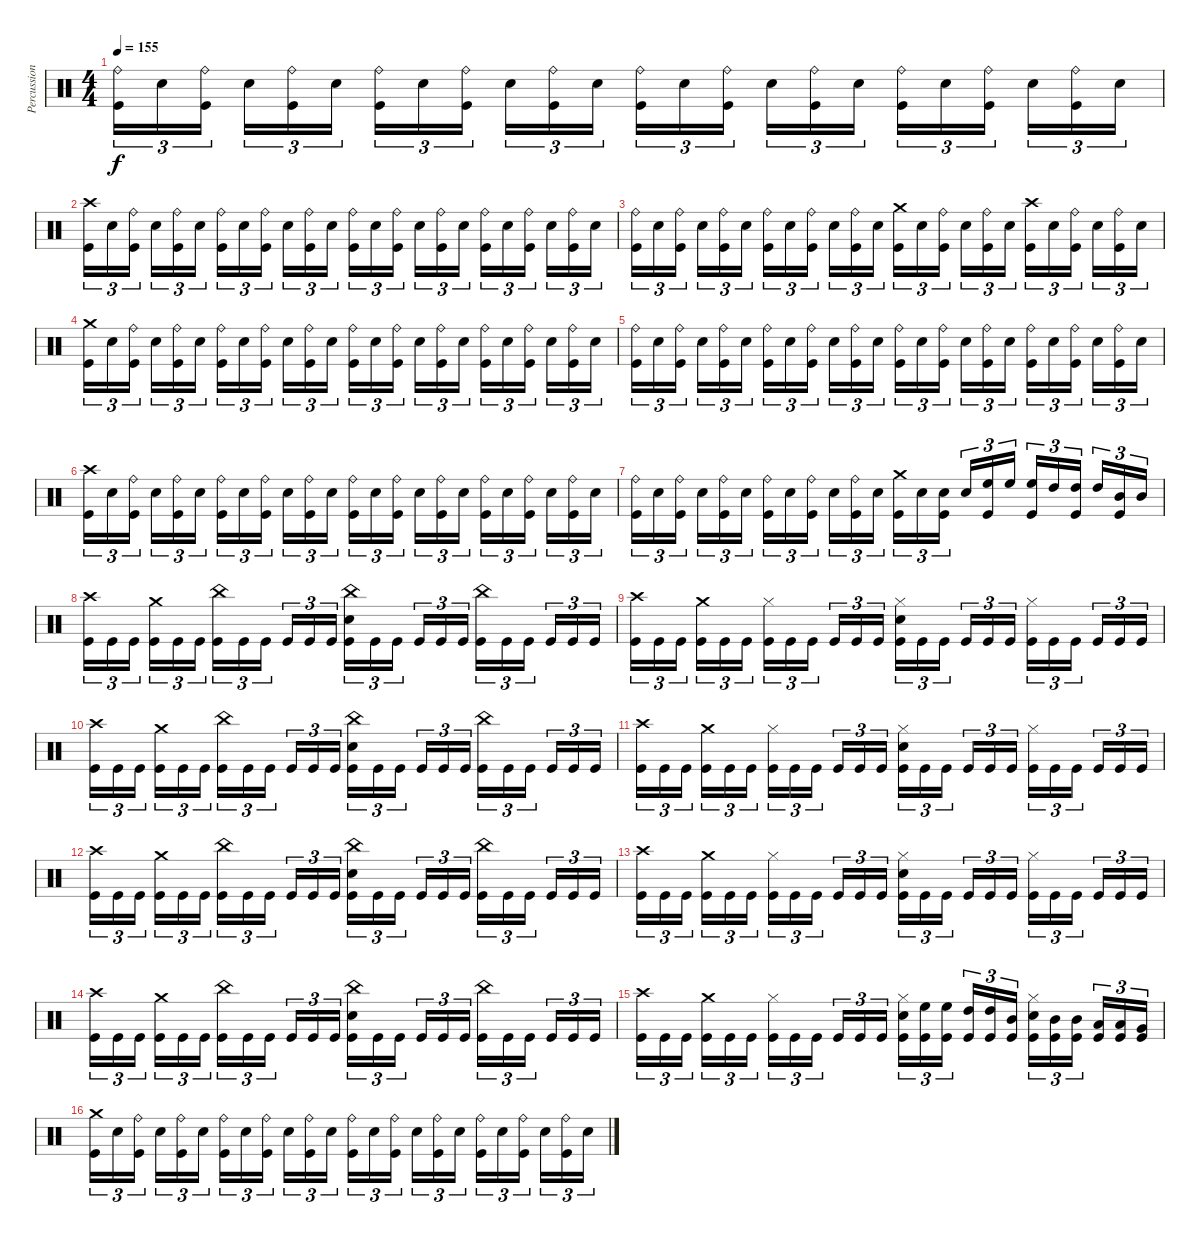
\track ("Percussion" "Percussion") {instrument percussion}
\staff {score}
\articulation defaults
\ts (4 4)
\tempo 155
\clef neutral
\ks c
("Ride (bell)" "Kick (hit)").16{tu (3 2) dy f} "Snare (hit) 2".16{tu (3 2)} ("Ride (bell)" "Kick (hit)").16{tu (3 2) beam splitsecondary} "Snare (hit) 2".16{tu (3 2)} ("Ride (bell)" "Kick (hit)").16{tu (3 2)} "Snare (hit) 2".16{tu (3 2)} ("Ride (bell)" "Kick (hit)").16{tu (3 2)} "Snare (hit) 2".16{tu (3 2)} ("Ride (bell)" "Kick (hit)").16{tu (3 2) beam splitsecondary} "Snare (hit) 2".16{tu (3 2)} ("Ride (bell)" "Kick (hit)").16{tu (3 2)} "Snare (hit) 2".16{tu (3 2)} ("Ride (bell)" "Kick (hit)").16{tu (3 2)} "Snare (hit) 2".16{tu (3 2)} ("Ride (bell)" "Kick (hit)").16{tu (3 2) beam splitsecondary} "Snare (hit) 2".16{tu (3 2)} ("Ride (bell)" "Kick (hit)").16{tu (3 2)} "Snare (hit) 2".16{tu (3 2)} ("Ride (bell)" "Kick (hit)").16{tu (3 2)} "Snare (hit) 2".16{tu (3 2)} ("Ride (bell)" "Kick (hit)").16{tu (3 2) beam splitsecondary} "Snare (hit) 2".16{tu (3 2)} ("Ride (bell)" "Kick (hit)").16{tu (3 2)} "Snare (hit) 2".16{tu (3 2)} |
("Crash high (hit)" "Kick (hit)").16{tu (3 2)} "Snare (hit) 2".16{tu (3 2)} ("Ride (bell)" "Kick (hit)").16{tu (3 2) beam splitsecondary} "Snare (hit) 2".16{tu (3 2)} ("Ride (bell)" "Kick (hit)").16{tu (3 2)} "Snare (hit) 2".16{tu (3 2)} ("Ride (bell)" "Kick (hit)").16{tu (3 2)} "Snare (hit) 2".16{tu (3 2)} ("Ride (bell)" "Kick (hit)").16{tu (3 2) beam splitsecondary} "Snare (hit) 2".16{tu (3 2)} ("Ride (bell)" "Kick (hit)").16{tu (3 2)} "Snare (hit) 2".16{tu (3 2)} ("Ride (bell)" "Kick (hit)").16{tu (3 2)} "Snare (hit) 2".16{tu (3 2)} ("Ride (bell)" "Kick (hit)").16{tu (3 2) beam splitsecondary} "Snare (hit) 2".16{tu (3 2)} ("Ride (bell)" "Kick (hit)").16{tu (3 2)} "Snare (hit) 2".16{tu (3 2)} ("Ride (bell)" "Kick (hit)").16{tu (3 2)} "Snare (hit) 2".16{tu (3 2)} ("Ride (bell)" "Kick (hit)").16{tu (3 2) beam splitsecondary} "Snare (hit) 2".16{tu (3 2)} ("Ride (bell)" "Kick (hit)").16{tu (3 2)} "Snare (hit) 2".16{tu (3 2)} |
("Ride (bell)" "Kick (hit)").16{tu (3 2)} "Snare (hit) 2".16{tu (3 2)} ("Ride (bell)" "Kick (hit)").16{tu (3 2) beam splitsecondary} "Snare (hit) 2".16{tu (3 2)} ("Ride (bell)" "Kick (hit)").16{tu (3 2)} "Snare (hit) 2".16{tu (3 2)} ("Ride (bell)" "Kick (hit)").16{tu (3 2)} "Snare (hit) 2".16{tu (3 2)} ("Ride (bell)" "Kick (hit)").16{tu (3 2) beam splitsecondary} "Snare (hit) 2".16{tu (3 2)} ("Ride (bell)" "Kick (hit)").16{tu (3 2)} "Snare (hit) 2".16{tu (3 2)} ("Crash medium (hit)" "Kick (hit)").16{tu (3 2)} "Snare (hit) 2".16{tu (3 2)} ("Ride (bell)" "Kick (hit)").16{tu (3 2) beam splitsecondary} "Snare (hit) 2".16{tu (3 2)} ("Ride (bell)" "Kick (hit)").16{tu (3 2)} "Snare (hit) 2".16{tu (3 2)} ("Crash high (hit)" "Kick (hit)").16{tu (3 2)} "Snare (hit) 2".16{tu (3 2)} ("Ride (bell)" "Kick (hit)").16{tu (3 2) beam splitsecondary} "Snare (hit) 2".16{tu (3 2)} ("Ride (bell)" "Kick (hit)").16{tu (3 2)} "Snare (hit) 2".16{tu (3 2)} |
("Crash medium (hit)" "Kick (hit)").16{tu (3 2)} "Snare (hit) 2".16{tu (3 2)} ("Ride (bell)" "Kick (hit)").16{tu (3 2) beam splitsecondary} "Snare (hit) 2".16{tu (3 2)} ("Ride (bell)" "Kick (hit)").16{tu (3 2)} "Snare (hit) 2".16{tu (3 2)} ("Ride (bell)" "Kick (hit)").16{tu (3 2)} "Snare (hit) 2".16{tu (3 2)} ("Ride (bell)" "Kick (hit)").16{tu (3 2) beam splitsecondary} "Snare (hit) 2".16{tu (3 2)} ("Ride (bell)" "Kick (hit)").16{tu (3 2)} "Snare (hit) 2".16{tu (3 2)} ("Ride (bell)" "Kick (hit)").16{tu (3 2)} "Snare (hit) 2".16{tu (3 2)} ("Ride (bell)" "Kick (hit)").16{tu (3 2) beam splitsecondary} "Snare (hit) 2".16{tu (3 2)} ("Ride (bell)" "Kick (hit)").16{tu (3 2)} "Snare (hit) 2".16{tu (3 2)} ("Ride (bell)" "Kick (hit)").16{tu (3 2)} "Snare (hit) 2".16{tu (3 2)} ("Ride (bell)" "Kick (hit)").16{tu (3 2) beam splitsecondary} "Snare (hit) 2".16{tu (3 2)} ("Ride (bell)" "Kick (hit)").16{tu (3 2)} "Snare (hit) 2".16{tu (3 2)} |
("Ride (bell)" "Kick (hit)").16{tu (3 2)} "Snare (hit) 2".16{tu (3 2)} ("Ride (bell)" "Kick (hit)").16{tu (3 2) beam splitsecondary} "Snare (hit) 2".16{tu (3 2)} ("Ride (bell)" "Kick (hit)").16{tu (3 2)} "Snare (hit) 2".16{tu (3 2)} ("Ride (bell)" "Kick (hit)").16{tu (3 2)} "Snare (hit) 2".16{tu (3 2)} ("Ride (bell)" "Kick (hit)").16{tu (3 2) beam splitsecondary} "Snare (hit) 2".16{tu (3 2)} ("Ride (bell)" "Kick (hit)").16{tu (3 2)} "Snare (hit) 2".16{tu (3 2)} ("Ride (bell)" "Kick (hit)").16{tu (3 2)} "Snare (hit) 2".16{tu (3 2)} ("Ride (bell)" "Kick (hit)").16{tu (3 2) beam splitsecondary} "Snare (hit) 2".16{tu (3 2)} ("Ride (bell)" "Kick (hit)").16{tu (3 2)} "Snare (hit) 2".16{tu (3 2)} ("Ride (bell)" "Kick (hit)").16{tu (3 2)} "Snare (hit) 2".16{tu (3 2)} ("Ride (bell)" "Kick (hit)").16{tu (3 2) beam splitsecondary} "Snare (hit) 2".16{tu (3 2)} ("Ride (bell)" "Kick (hit)").16{tu (3 2)} "Snare (hit) 2".16{tu (3 2)} |
("Crash high (hit)" "Kick (hit)").16{tu (3 2)} "Snare (hit) 2".16{tu (3 2)} ("Ride (bell)" "Kick (hit)").16{tu (3 2) beam splitsecondary} "Snare (hit) 2".16{tu (3 2)} ("Ride (bell)" "Kick (hit)").16{tu (3 2)} "Snare (hit) 2".16{tu (3 2)} ("Ride (bell)" "Kick (hit)").16{tu (3 2)} "Snare (hit) 2".16{tu (3 2)} ("Ride (bell)" "Kick (hit)").16{tu (3 2) beam splitsecondary} "Snare (hit) 2".16{tu (3 2)} ("Ride (bell)" "Kick (hit)").16{tu (3 2)} "Snare (hit) 2".16{tu (3 2)} ("Ride (bell)" "Kick (hit)").16{tu (3 2)} "Snare (hit) 2".16{tu (3 2)} ("Ride (bell)" "Kick (hit)").16{tu (3 2) beam splitsecondary} "Snare (hit) 2".16{tu (3 2)} ("Ride (bell)" "Kick (hit)").16{tu (3 2)} "Snare (hit) 2".16{tu (3 2)} ("Ride (bell)" "Kick (hit)").16{tu (3 2)} "Snare (hit) 2".16{tu (3 2)} ("Ride (bell)" "Kick (hit)").16{tu (3 2) beam splitsecondary} "Snare (hit) 2".16{tu (3 2)} ("Ride (bell)" "Kick (hit)").16{tu (3 2)} "Snare (hit) 2".16{tu (3 2)} |
("Ride (bell)" "Kick (hit)").16{tu (3 2)} "Snare (hit) 2".16{tu (3 2)} ("Ride (bell)" "Kick (hit)").16{tu (3 2) beam splitsecondary} "Snare (hit) 2".16{tu (3 2)} ("Ride (bell)" "Kick (hit)").16{tu (3 2)} "Snare (hit) 2".16{tu (3 2)} ("Ride (bell)" "Kick (hit)").16{tu (3 2)} "Snare (hit) 2".16{tu (3 2)} ("Ride (bell)" "Kick (hit)").16{tu (3 2) beam splitsecondary} "Snare (hit) 2".16{tu (3 2)} ("Ride (bell)" "Kick (hit)").16{tu (3 2)} "Snare (hit) 2".16{tu (3 2)} ("Crash medium (hit)" "Kick (hit)").16{tu (3 2)} "Snare (hit) 2".16{tu (3 2)} ("Snare (hit) 2" "Kick (hit)").16{tu (3 2) beam splitsecondary} "Snare (hit) 2".16{tu (3 2)} ("High Floor Tom (hit)" "Kick (hit)").16{tu (3 2)} "High Floor Tom (hit)".16{tu (3 2)} ("High Floor Tom (hit)" "Kick (hit)").16{tu (3 2)} "High Tom (hit)".16{tu (3 2)} ("High Tom (hit)" "Kick (hit)").16{tu (3 2) beam splitsecondary} "High Tom (hit)".16{tu (3 2)} ("Mid Tom (hit)" "Kick (hit)").16{tu (3 2)} "Mid Tom (hit)".16{tu (3 2)} |
("Crash high (hit)" "Kick (hit)").16{tu (3 2)} "Kick (hit)".16{tu (3 2)} "Kick (hit)".16{tu (3 2) beam splitsecondary} ("Crash medium (hit)" "Kick (hit)").16{tu (3 2)} "Kick (hit)".16{tu (3 2)} "Kick (hit)".16{tu (3 2)} ("China (hit)" "Kick (hit)").16{tu (3 2)} "Kick (hit)".16{tu (3 2)} "Kick (hit)".16{tu (3 2) beam splitsecondary} "Kick (hit)".16{tu (3 2)} "Kick (hit)".16{tu (3 2)} "Kick (hit)".16{tu (3 2)} ("China (hit)" "Snare (hit) 2" "Kick (hit)").16{tu (3 2)} "Kick (hit)".16{tu (3 2)} "Kick (hit)".16{tu (3 2) beam splitsecondary} "Kick (hit)".16{tu (3 2)} "Kick (hit)".16{tu (3 2)} "Kick (hit)".16{tu (3 2)} ("China (hit)" "Kick (hit)").16{tu (3 2)} "Kick (hit)".16{tu (3 2)} "Kick (hit)".16{tu (3 2) beam splitsecondary} "Kick (hit)".16{tu (3 2)} "Kick (hit)".16{tu (3 2)} "Kick (hit)".16{tu (3 2)} |
("Crash high (hit)" "Kick (hit)").16{tu (3 2)} "Kick (hit)".16{tu (3 2)} "Kick (hit)".16{tu (3 2) beam splitsecondary} ("Crash medium (hit)" "Kick (hit)").16{tu (3 2)} "Kick (hit)".16{tu (3 2)} "Kick (hit)".16{tu (3 2)} ("Hi-Hat (closed)" "Kick (hit)").16{tu (3 2)} "Kick (hit)".16{tu (3 2)} "Kick (hit)".16{tu (3 2) beam splitsecondary} "Kick (hit)".16{tu (3 2)} "Kick (hit)".16{tu (3 2)} "Kick (hit)".16{tu (3 2)} ("Hi-Hat (closed)" "Snare (hit) 2" "Kick (hit)").16{tu (3 2)} "Kick (hit)".16{tu (3 2)} "Kick (hit)".16{tu (3 2) beam splitsecondary} "Kick (hit)".16{tu (3 2)} "Kick (hit)".16{tu (3 2)} "Kick (hit)".16{tu (3 2)} ("Hi-Hat (closed)" "Kick (hit)").16{tu (3 2)} "Kick (hit)".16{tu (3 2)} "Kick (hit)".16{tu (3 2) beam splitsecondary} "Kick (hit)".16{tu (3 2)} "Kick (hit)".16{tu (3 2)} "Kick (hit)".16{tu (3 2)} |
("Crash high (hit)" "Kick (hit)").16{tu (3 2)} "Kick (hit)".16{tu (3 2)} "Kick (hit)".16{tu (3 2) beam splitsecondary} ("Crash medium (hit)" "Kick (hit)").16{tu (3 2)} "Kick (hit)".16{tu (3 2)} "Kick (hit)".16{tu (3 2)} ("China (hit)" "Kick (hit)").16{tu (3 2)} "Kick (hit)".16{tu (3 2)} "Kick (hit)".16{tu (3 2) beam splitsecondary} "Kick (hit)".16{tu (3 2)} "Kick (hit)".16{tu (3 2)} "Kick (hit)".16{tu (3 2)} ("China (hit)" "Snare (hit) 2" "Kick (hit)").16{tu (3 2)} "Kick (hit)".16{tu (3 2)} "Kick (hit)".16{tu (3 2) beam splitsecondary} "Kick (hit)".16{tu (3 2)} "Kick (hit)".16{tu (3 2)} "Kick (hit)".16{tu (3 2)} ("China (hit)" "Kick (hit)").16{tu (3 2)} "Kick (hit)".16{tu (3 2)} "Kick (hit)".16{tu (3 2) beam splitsecondary} "Kick (hit)".16{tu (3 2)} "Kick (hit)".16{tu (3 2)} "Kick (hit)".16{tu (3 2)} |
("Crash high (hit)" "Kick (hit)").16{tu (3 2)} "Kick (hit)".16{tu (3 2)} "Kick (hit)".16{tu (3 2) beam splitsecondary} ("Crash medium (hit)" "Kick (hit)").16{tu (3 2)} "Kick (hit)".16{tu (3 2)} "Kick (hit)".16{tu (3 2)} ("Hi-Hat (closed)" "Kick (hit)").16{tu (3 2)} "Kick (hit)".16{tu (3 2)} "Kick (hit)".16{tu (3 2) beam splitsecondary} "Kick (hit)".16{tu (3 2)} "Kick (hit)".16{tu (3 2)} "Kick (hit)".16{tu (3 2)} ("Hi-Hat (closed)" "Snare (hit) 2" "Kick (hit)").16{tu (3 2)} "Kick (hit)".16{tu (3 2)} "Kick (hit)".16{tu (3 2) beam splitsecondary} "Kick (hit)".16{tu (3 2)} "Kick (hit)".16{tu (3 2)} "Kick (hit)".16{tu (3 2)} ("Hi-Hat (closed)" "Kick (hit)").16{tu (3 2)} "Kick (hit)".16{tu (3 2)} "Kick (hit)".16{tu (3 2) beam splitsecondary} "Kick (hit)".16{tu (3 2)} "Kick (hit)".16{tu (3 2)} "Kick (hit)".16{tu (3 2)} |
("Crash high (hit)" "Kick (hit)").16{tu (3 2)} "Kick (hit)".16{tu (3 2)} "Kick (hit)".16{tu (3 2) beam splitsecondary} ("Crash medium (hit)" "Kick (hit)").16{tu (3 2)} "Kick (hit)".16{tu (3 2)} "Kick (hit)".16{tu (3 2)} ("China (hit)" "Kick (hit)").16{tu (3 2)} "Kick (hit)".16{tu (3 2)} "Kick (hit)".16{tu (3 2) beam splitsecondary} "Kick (hit)".16{tu (3 2)} "Kick (hit)".16{tu (3 2)} "Kick (hit)".16{tu (3 2)} ("China (hit)" "Snare (hit) 2" "Kick (hit)").16{tu (3 2)} "Kick (hit)".16{tu (3 2)} "Kick (hit)".16{tu (3 2) beam splitsecondary} "Kick (hit)".16{tu (3 2)} "Kick (hit)".16{tu (3 2)} "Kick (hit)".16{tu (3 2)} ("China (hit)" "Kick (hit)").16{tu (3 2)} "Kick (hit)".16{tu (3 2)} "Kick (hit)".16{tu (3 2) beam splitsecondary} "Kick (hit)".16{tu (3 2)} "Kick (hit)".16{tu (3 2)} "Kick (hit)".16{tu (3 2)} |
("Crash high (hit)" "Kick (hit)").16{tu (3 2)} "Kick (hit)".16{tu (3 2)} "Kick (hit)".16{tu (3 2) beam splitsecondary} ("Crash medium (hit)" "Kick (hit)").16{tu (3 2)} "Kick (hit)".16{tu (3 2)} "Kick (hit)".16{tu (3 2)} ("Hi-Hat (closed)" "Kick (hit)").16{tu (3 2)} "Kick (hit)".16{tu (3 2)} "Kick (hit)".16{tu (3 2) beam splitsecondary} "Kick (hit)".16{tu (3 2)} "Kick (hit)".16{tu (3 2)} "Kick (hit)".16{tu (3 2)} ("Hi-Hat (closed)" "Snare (hit) 2" "Kick (hit)").16{tu (3 2)} "Kick (hit)".16{tu (3 2)} "Kick (hit)".16{tu (3 2) beam splitsecondary} "Kick (hit)".16{tu (3 2)} "Kick (hit)".16{tu (3 2)} "Kick (hit)".16{tu (3 2)} ("Hi-Hat (closed)" "Kick (hit)").16{tu (3 2)} "Kick (hit)".16{tu (3 2)} "Kick (hit)".16{tu (3 2) beam splitsecondary} "Kick (hit)".16{tu (3 2)} "Kick (hit)".16{tu (3 2)} "Kick (hit)".16{tu (3 2)} |
("Crash high (hit)" "Kick (hit)").16{tu (3 2)} "Kick (hit)".16{tu (3 2)} "Kick (hit)".16{tu (3 2) beam splitsecondary} ("Crash medium (hit)" "Kick (hit)").16{tu (3 2)} "Kick (hit)".16{tu (3 2)} "Kick (hit)".16{tu (3 2)} ("China (hit)" "Kick (hit)").16{tu (3 2)} "Kick (hit)".16{tu (3 2)} "Kick (hit)".16{tu (3 2) beam splitsecondary} "Kick (hit)".16{tu (3 2)} "Kick (hit)".16{tu (3 2)} "Kick (hit)".16{tu (3 2)} ("China (hit)" "Snare (hit) 2" "Kick (hit)").16{tu (3 2)} "Kick (hit)".16{tu (3 2)} "Kick (hit)".16{tu (3 2) beam splitsecondary} "Kick (hit)".16{tu (3 2)} "Kick (hit)".16{tu (3 2)} "Kick (hit)".16{tu (3 2)} ("China (hit)" "Kick (hit)").16{tu (3 2)} "Kick (hit)".16{tu (3 2)} "Kick (hit)".16{tu (3 2) beam splitsecondary} "Kick (hit)".16{tu (3 2)} "Kick (hit)".16{tu (3 2)} "Kick (hit)".16{tu (3 2)} |
("Crash high (hit)" "Kick (hit)").16{tu (3 2)} "Kick (hit)".16{tu (3 2)} "Kick (hit)".16{tu (3 2) beam splitsecondary} ("Crash medium (hit)" "Kick (hit)").16{tu (3 2)} "Kick (hit)".16{tu (3 2)} "Kick (hit)".16{tu (3 2)} ("Hi-Hat (closed)" "Kick (hit)").16{tu (3 2)} "Kick (hit)".16{tu (3 2)} "Kick (hit)".16{tu (3 2) beam splitsecondary} "Kick (hit)".16{tu (3 2)} "Kick (hit)".16{tu (3 2)} "Kick (hit)".16{tu (3 2)} ("Hi-Hat (closed)" "Snare (hit) 2" "Kick (hit)").16{tu (3 2)} ("High Floor Tom (hit)" "Kick (hit)").16{tu (3 2)} ("High Floor Tom (hit)" "Kick (hit)").16{tu (3 2) beam splitsecondary} ("High Tom (hit)" "Kick (hit)").16{tu (3 2)} ("High Tom (hit)" "Kick (hit)").16{tu (3 2)} ("Mid Tom (hit)" "Kick (hit)").16{tu (3 2)} ("Hi-Hat (closed)" "Snare (hit) 2" "Kick (hit)").16{tu (3 2)} ("Mid Tom (hit)" "Kick (hit)").16{tu (3 2)} ("Mid Tom (hit)" "Kick (hit)").16{tu (3 2) beam splitsecondary} ("Low Tom (hit)" "Kick (hit)").16{tu (3 2)} ("Low Tom (hit)" "Kick (hit)").16{tu (3 2)} ("Very Low Tom (hit)" "Kick (hit)").16{tu (3 2)} |
("Crash medium (hit)" "Kick (hit)").16{tu (3 2)} "Snare (hit) 2".16{tu (3 2)} ("Ride (bell)" "Kick (hit)").16{tu (3 2) beam splitsecondary} "Snare (hit) 2".16{tu (3 2)} ("Ride (bell)" "Kick (hit)").16{tu (3 2)} "Snare (hit) 2".16{tu (3 2)} ("Ride (bell)" "Kick (hit)").16{tu (3 2)} "Snare (hit) 2".16{tu (3 2)} ("Ride (bell)" "Kick (hit)").16{tu (3 2) beam splitsecondary} "Snare (hit) 2".16{tu (3 2)} ("Ride (bell)" "Kick (hit)").16{tu (3 2)} "Snare (hit) 2".16{tu (3 2)} ("Ride (bell)" "Kick (hit)").16{tu (3 2)} "Snare (hit) 2".16{tu (3 2)} ("Ride (bell)" "Kick (hit)").16{tu (3 2) beam splitsecondary} "Snare (hit) 2".16{tu (3 2)} ("Ride (bell)" "Kick (hit)").16{tu (3 2)} "Snare (hit) 2".16{tu (3 2)} ("Ride (bell)" "Kick (hit)").16{tu (3 2)} "Snare (hit) 2".16{tu (3 2)} ("Ride (bell)" "Kick (hit)").16{tu (3 2) beam splitsecondary} "Snare (hit) 2".16{tu (3 2)} ("Ride (bell)" "Kick (hit)").16{tu (3 2)} "Snare (hit) 2".16{tu (3 2)}
